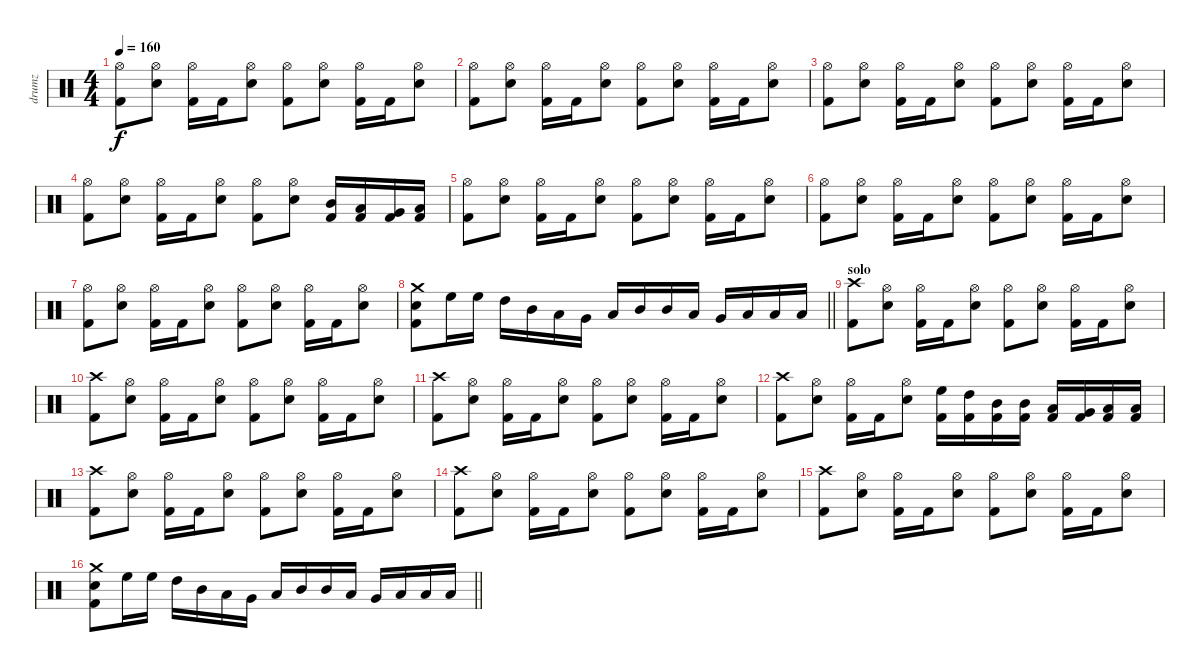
\track ("drumz" "drumz") {instrument percussion}
\staff {score}
\articulation defaults
\ts (4 4)
\tempo 160
\clef neutral
\ks c
("Hi-Hat (open)" "Kick (hit) 2").8{dy f} ("Hi-Hat (open)" "Electric Snare (hit)").8 ("Hi-Hat (open)" "Kick (hit) 2").16 "Kick (hit) 2".16 ("Hi-Hat (open)" "Electric Snare (hit)").8 ("Hi-Hat (open)" "Kick (hit) 2").8 ("Hi-Hat (open)" "Electric Snare (hit)").8 ("Hi-Hat (open)" "Kick (hit) 2").16 "Kick (hit) 2".16 ("Hi-Hat (open)" "Electric Snare (hit)").8 |
("Hi-Hat (open)" "Kick (hit) 2").8 ("Hi-Hat (open)" "Electric Snare (hit)").8 ("Hi-Hat (open)" "Kick (hit) 2").16 "Kick (hit) 2".16 ("Hi-Hat (open)" "Electric Snare (hit)").8 ("Hi-Hat (open)" "Kick (hit) 2").8 ("Hi-Hat (open)" "Electric Snare (hit)").8 ("Hi-Hat (open)" "Kick (hit) 2").16 "Kick (hit) 2".16 ("Hi-Hat (open)" "Electric Snare (hit)").8 |
("Hi-Hat (open)" "Kick (hit) 2").8 ("Hi-Hat (open)" "Electric Snare (hit)").8 ("Hi-Hat (open)" "Kick (hit) 2").16 "Kick (hit) 2".16 ("Hi-Hat (open)" "Electric Snare (hit)").8 ("Hi-Hat (open)" "Kick (hit) 2").8 ("Hi-Hat (open)" "Electric Snare (hit)").8 ("Hi-Hat (open)" "Kick (hit) 2").16 "Kick (hit) 2".16 ("Hi-Hat (open)" "Electric Snare (hit)").8 |
("Hi-Hat (open)" "Kick (hit) 2").8 ("Hi-Hat (open)" "Electric Snare (hit)").8 ("Hi-Hat (open)" "Kick (hit) 2").16 "Kick (hit) 2".16 ("Hi-Hat (open)" "Electric Snare (hit)").8 ("Hi-Hat (open)" "Kick (hit) 2").8 ("Hi-Hat (open)" "Electric Snare (hit)").8 ("Mid Tom (hit)" "Kick (hit) 2").16 ("Low Tom (hit)" "Kick (hit) 2").16 ("Very Low Tom (hit)" "Kick (hit) 2").16 ("Low Floor Tom (hit)" "Kick (hit) 2").16 |
("Hi-Hat (open)" "Kick (hit) 2").8 ("Hi-Hat (open)" "Electric Snare (hit)").8 ("Hi-Hat (open)" "Kick (hit) 2").16 "Kick (hit) 2".16 ("Hi-Hat (open)" "Electric Snare (hit)").8 ("Hi-Hat (open)" "Kick (hit) 2").8 ("Hi-Hat (open)" "Electric Snare (hit)").8 ("Hi-Hat (open)" "Kick (hit) 2").16 "Kick (hit) 2".16 ("Hi-Hat (open)" "Electric Snare (hit)").8 |
("Hi-Hat (open)" "Kick (hit) 2").8 ("Hi-Hat (open)" "Electric Snare (hit)").8 ("Hi-Hat (open)" "Kick (hit) 2").16 "Kick (hit) 2".16 ("Hi-Hat (open)" "Electric Snare (hit)").8 ("Hi-Hat (open)" "Kick (hit) 2").8 ("Hi-Hat (open)" "Electric Snare (hit)").8 ("Hi-Hat (open)" "Kick (hit) 2").16 "Kick (hit) 2".16 ("Hi-Hat (open)" "Electric Snare (hit)").8 |
("Hi-Hat (open)" "Kick (hit) 2").8 ("Hi-Hat (open)" "Electric Snare (hit)").8 ("Hi-Hat (open)" "Kick (hit) 2").16 "Kick (hit) 2".16 ("Hi-Hat (open)" "Electric Snare (hit)").8 ("Hi-Hat (open)" "Kick (hit) 2").8 ("Hi-Hat (open)" "Electric Snare (hit)").8 ("Hi-Hat (open)" "Kick (hit) 2").16 "Kick (hit) 2".16 ("Hi-Hat (open)" "Electric Snare (hit)").8 |
\barLineRight lightlight
("Crash medium (hit)" "Electric Snare (hit)" "Kick (hit) 2").8 "High Floor Tom (hit)".16 "High Floor Tom (hit)".16 "High Tom (hit)".16 "Mid Tom (hit)".16 "Low Tom (hit)".16 "Very Low Tom (hit)".16 "Low Floor Tom (hit)".16 "Mid Tom (hit)".16 "Mid Tom (hit)".16 "Low Tom (hit)".16 "Very Low Tom (hit)".16 "Low Floor Tom (hit)".16 "Low Floor Tom (hit)".16 "Low Floor Tom (hit)".16 |
\section ("" "solo")
("Crash high (hit)" "Kick (hit) 2").8 ("Hi-Hat (open)" "Electric Snare (hit)").8 ("Hi-Hat (open)" "Kick (hit) 2").16 "Kick (hit) 2".16 ("Hi-Hat (open)" "Electric Snare (hit)").8 ("Hi-Hat (open)" "Kick (hit) 2").8 ("Hi-Hat (open)" "Electric Snare (hit)").8 ("Hi-Hat (open)" "Kick (hit) 2").16 "Kick (hit) 2".16 ("Hi-Hat (open)" "Electric Snare (hit)").8 |
("Crash high (hit)" "Kick (hit) 2").8 ("Hi-Hat (open)" "Electric Snare (hit)").8 ("Hi-Hat (open)" "Kick (hit) 2").16 "Kick (hit) 2".16 ("Hi-Hat (open)" "Electric Snare (hit)").8 ("Hi-Hat (open)" "Kick (hit) 2").8 ("Hi-Hat (open)" "Electric Snare (hit)").8 ("Hi-Hat (open)" "Kick (hit) 2").16 "Kick (hit) 2".16 ("Hi-Hat (open)" "Electric Snare (hit)").8 |
("Crash high (hit)" "Kick (hit) 2").8 ("Hi-Hat (open)" "Electric Snare (hit)").8 ("Hi-Hat (open)" "Kick (hit) 2").16 "Kick (hit) 2".16 ("Hi-Hat (open)" "Electric Snare (hit)").8 ("Hi-Hat (open)" "Kick (hit) 2").8 ("Hi-Hat (open)" "Electric Snare (hit)").8 ("Hi-Hat (open)" "Kick (hit) 2").16 "Kick (hit) 2".16 ("Hi-Hat (open)" "Electric Snare (hit)").8 |
("Crash high (hit)" "Kick (hit) 2").8 ("Hi-Hat (open)" "Electric Snare (hit)").8 ("Hi-Hat (open)" "Kick (hit) 2").16 "Kick (hit) 2".16 ("Hi-Hat (open)" "Electric Snare (hit)").8 ("High Floor Tom (hit)" "Kick (hit) 2").16 ("High Tom (hit)" "Kick (hit) 2").16 ("Mid Tom (hit)" "Kick (hit) 2").16 ("Mid Tom (hit)" "Kick (hit) 2").16 ("Low Tom (hit)" "Kick (hit) 2").16 ("Very Low Tom (hit)" "Kick (hit) 2").16 ("Low Floor Tom (hit)" "Kick (hit) 2").16 ("Low Floor Tom (hit)" "Kick (hit) 2").16 |
("Crash high (hit)" "Kick (hit) 2").8 ("Hi-Hat (open)" "Electric Snare (hit)").8 ("Hi-Hat (open)" "Kick (hit) 2").16 "Kick (hit) 2".16 ("Hi-Hat (open)" "Electric Snare (hit)").8 ("Hi-Hat (open)" "Kick (hit) 2").8 ("Hi-Hat (open)" "Electric Snare (hit)").8 ("Hi-Hat (open)" "Kick (hit) 2").16 "Kick (hit) 2".16 ("Hi-Hat (open)" "Electric Snare (hit)").8 |
("Crash high (hit)" "Kick (hit) 2").8 ("Hi-Hat (open)" "Electric Snare (hit)").8 ("Hi-Hat (open)" "Kick (hit) 2").16 "Kick (hit) 2".16 ("Hi-Hat (open)" "Electric Snare (hit)").8 ("Hi-Hat (open)" "Kick (hit) 2").8 ("Hi-Hat (open)" "Electric Snare (hit)").8 ("Hi-Hat (open)" "Kick (hit) 2").16 "Kick (hit) 2".16 ("Hi-Hat (open)" "Electric Snare (hit)").8 |
("Crash high (hit)" "Kick (hit) 2").8 ("Hi-Hat (open)" "Electric Snare (hit)").8 ("Hi-Hat (open)" "Kick (hit) 2").16 "Kick (hit) 2".16 ("Hi-Hat (open)" "Electric Snare (hit)").8 ("Hi-Hat (open)" "Kick (hit) 2").8 ("Hi-Hat (open)" "Electric Snare (hit)").8 ("Hi-Hat (open)" "Kick (hit) 2").16 "Kick (hit) 2".16 ("Hi-Hat (open)" "Electric Snare (hit)").8 |
\barLineRight lightlight
("Crash medium (hit)" "Electric Snare (hit)" "Kick (hit) 2").8 "High Floor Tom (hit)".16 "High Floor Tom (hit)".16 "High Tom (hit)".16 "Mid Tom (hit)".16 "Low Tom (hit)".16 "Very Low Tom (hit)".16 "Low Floor Tom (hit)".16 "Mid Tom (hit)".16 "Mid Tom (hit)".16 "Low Tom (hit)".16 "Very Low Tom (hit)".16 "Low Floor Tom (hit)".16 "Low Floor Tom (hit)".16 "Low Floor Tom (hit)".16
